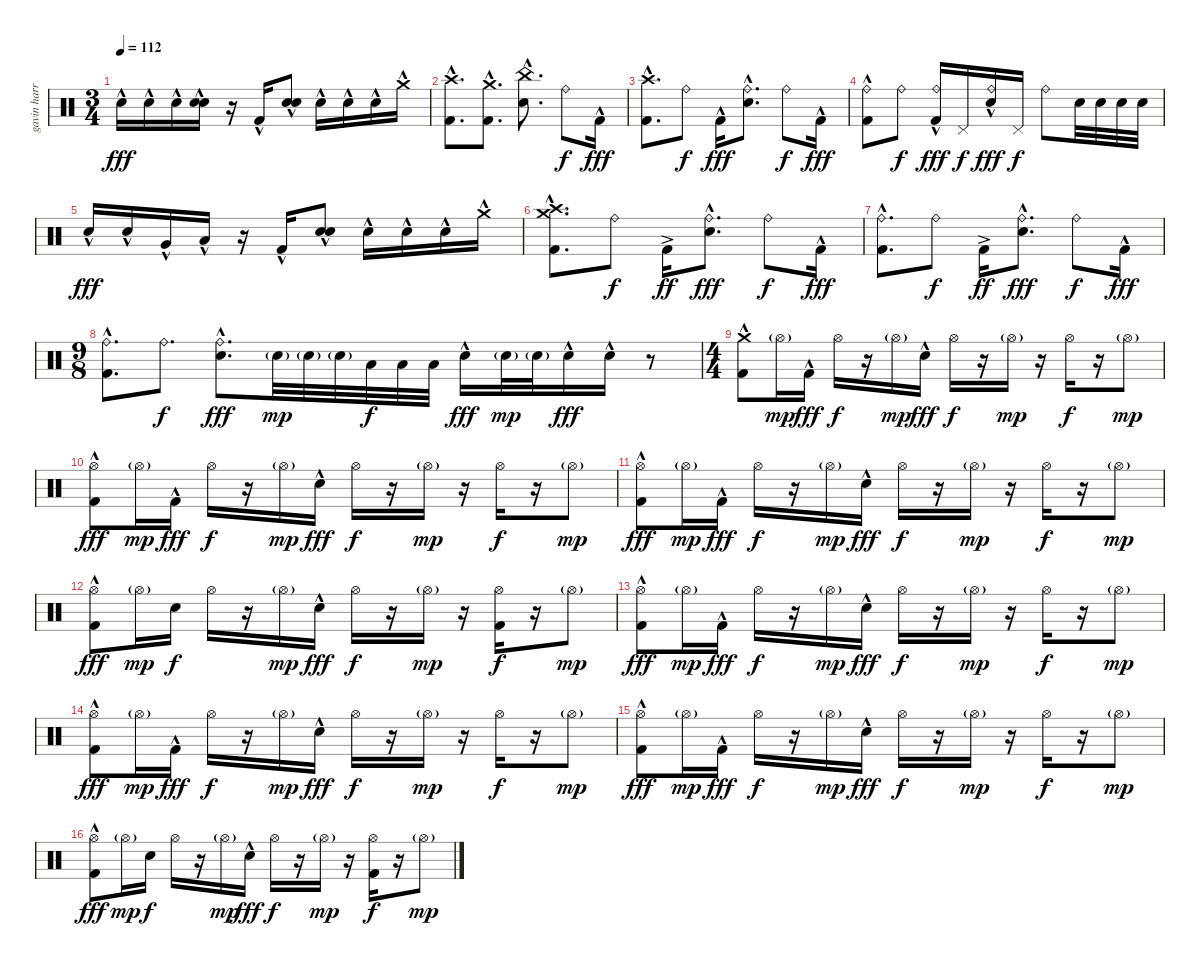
\track ("gavin harrison" "gavin harr") {instrument percussion}
\staff {score}
\articulation defaults
\ts (3 4)
\tempo 112
\clef neutral
\ks c "Electric Snare (hit)"{hac}.16{dy fff} "Electric Snare (hit)"{hac}.16 "Electric Snare (hit)"{hac}.16
("Electric Snare (hit)" "Electric Snare (hit)"{hac}).16 r.16 "Kick (hit) 2"{hac}.16 ("Electric Snare (hit)"{hac} "Electric Snare (hit)"{hac}).8 "Electric Snare (hit)"{hac}.16 "Electric Snare (hit)"{hac}.16 "Electric Snare (hit)"{hac}.16 "Crash medium (hit)"{hac}.16 |
("Crash high (hit)" "Kick (hit) 2"{hac}).8{d} ("Crash medium (hit)" "Kick (hit) 2"{hac}).8{d} ("China (hit)" "Electric Snare (hit)"{hac}).8{d} "Ride (bell)".8{dy f} "Kick (hit) 2"{hac}.16{dy fff} |
("Crash high (hit)" "Kick (hit) 2"{hac}).8{d} "Ride (bell)".8{dy f} "Kick (hit) 2"{hac}.16{dy fff} ("Ride (bell)" "Electric Snare (hit)"{hac}).8{d} "Ride (bell)".8{dy f} "Kick (hit) 2"{hac}.16{dy fff} |
("Ride (bell)" "Kick (hit) 2"{hac}).8 "Ride (bell)".8{dy f} ("Ride (bell)" "Kick (hit) 2"{hac}).16{dy fff} "Pedal Hi-Hat (hit)".16{dy f} ("Ride (bell)" "Electric Snare (hit)"{hac}).16{dy fff} "Pedal Hi-Hat (hit)".16{dy f} "Ride (bell)".8 "Electric Snare (hit)".32 "Electric Snare (hit)".32 "Electric Snare (hit)".32 "Electric Snare (hit)".32 |
"Electric Snare (hit)"{hac}.16{dy fff} "Electric Snare (hit)"{hac}.16 "Very Low Tom (hit)"{hac}.16 "Low Floor Tom (hit)"{hac}.16 r.16 "Kick (hit) 2"{hac}.16 ("Electric Snare (hit)"{hac} "Electric Snare (hit)"{hac}).8 "Electric Snare (hit)"{hac}.16 "Electric Snare (hit)"{hac}.16 "Electric Snare (hit)"{hac}.16 "Crash medium (hit)"{hac}.16 |
("Crash high (hit)" "Crash medium (hit)" "Kick (hit) 2"{hac}).8{d} "Ride (bell)".8{dy f} "Kick (hit) 2"{ac}.16{dy ff} ("Ride (bell)" "Electric Snare (hit)"{hac}).8{d dy fff} "Ride (bell)".8{dy f} "Kick (hit) 2"{hac}.16{dy fff} |
("Ride (bell)" "Kick (hit) 2"{hac}).8{d} "Ride (bell)".8{dy f} "Kick (hit) 2"{ac}.16{dy ff} ("Ride (bell)" "Electric Snare (hit)"{hac}).8{d dy fff} "Ride (bell)".8{dy f} "Kick (hit) 2"{hac}.16{dy fff} |
\ts (9 8)
("Ride (bell)" "Kick (hit) 2"{hac}).8{d} "Ride (bell)".8{d dy f} ("Ride (bell)" "Electric Snare (hit)"{hac}).8{d dy fff} "Electric Snare (hit)"{g}.32{dy mp} "Electric Snare (hit)"{g}.32 "Electric Snare (hit)"{g}.32 "Low Floor Tom (hit)".32{dy f} "Low Floor Tom (hit)".32 "Low Floor Tom (hit)".32 "Electric Snare (hit)"{hac}.16{dy fff} "Electric Snare (hit)"{g}.32{dy mp} "Electric Snare (hit)"{g}.32 "Electric Snare (hit)"{hac}.16{dy fff} "Electric Snare (hit)"{hac}.16 r.8 |
\ts (4 4)
("Crash medium (hit)" "Kick (hit) 2"{hac}).8 "Hi-Hat (open)"{g}.16{dy mp} "Kick (hit) 2"{hac}.16{dy fff} "Hi-Hat (open)".16{dy f} r.16 "Hi-Hat (open)"{g}.16{dy mp} "Electric Snare (hit)"{hac}.16{dy fff} "Hi-Hat (open)".16{dy f} r.16 "Hi-Hat (open)"{g}.16{dy mp} r.16 "Hi-Hat (open)".16{dy f} r.16 "Hi-Hat (open)"{g}.8{dy mp} |
("Hi-Hat (open)" "Kick (hit) 2"{hac}).8{dy fff} "Hi-Hat (open)"{g}.16{dy mp} "Kick (hit) 2"{hac}.16{dy fff} "Hi-Hat (open)".16{dy f} r.16 "Hi-Hat (open)"{g}.16{dy mp} "Electric Snare (hit)"{hac}.16{dy fff} "Hi-Hat (open)".16{dy f} r.16 "Hi-Hat (open)"{g}.16{dy mp} r.16 "Hi-Hat (open)".16{dy f} r.16 "Hi-Hat (open)"{g}.8{dy mp} |
("Hi-Hat (open)" "Kick (hit) 2"{hac}).8{dy fff} "Hi-Hat (open)"{g}.16{dy mp} "Kick (hit) 2"{hac}.16{dy fff} "Hi-Hat (open)".16{dy f} r.16 "Hi-Hat (open)"{g}.16{dy mp} "Electric Snare (hit)"{hac}.16{dy fff} "Hi-Hat (open)".16{dy f} r.16 "Hi-Hat (open)"{g}.16{dy mp} r.16 "Hi-Hat (open)".16{dy f} r.16 "Hi-Hat (open)"{g}.8{dy mp} |
("Hi-Hat (open)" "Kick (hit) 2"{hac}).8{dy fff} "Hi-Hat (open)"{g}.16{dy mp} "Electric Snare (hit)".16{dy f} "Hi-Hat (open)".16 r.16 "Hi-Hat (open)"{g}.16{dy mp} "Electric Snare (hit)"{hac}.16{dy fff} "Hi-Hat (open)".16{dy f} r.16 "Hi-Hat (open)"{g}.16{dy mp} r.16 ("Hi-Hat (open)" "Kick (hit) 2").16{dy f} r.16 "Hi-Hat (open)"{g}.8{dy mp} |
("Hi-Hat (open)" "Kick (hit) 2"{hac}).8{dy fff} "Hi-Hat (open)"{g}.16{dy mp} "Kick (hit) 2"{hac}.16{dy fff} "Hi-Hat (open)".16{dy f} r.16 "Hi-Hat (open)"{g}.16{dy mp} "Electric Snare (hit)"{hac}.16{dy fff} "Hi-Hat (open)".16{dy f} r.16 "Hi-Hat (open)"{g}.16{dy mp} r.16 "Hi-Hat (open)".16{dy f} r.16 "Hi-Hat (open)"{g}.8{dy mp} |
("Hi-Hat (open)" "Kick (hit) 2"{hac}).8{dy fff} "Hi-Hat (open)"{g}.16{dy mp} "Kick (hit) 2"{hac}.16{dy fff} "Hi-Hat (open)".16{dy f} r.16 "Hi-Hat (open)"{g}.16{dy mp} "Electric Snare (hit)"{hac}.16{dy fff} "Hi-Hat (open)".16{dy f} r.16 "Hi-Hat (open)"{g}.16{dy mp} r.16 "Hi-Hat (open)".16{dy f} r.16 "Hi-Hat (open)"{g}.8{dy mp} |
("Hi-Hat (open)" "Kick (hit) 2"{hac}).8{dy fff} "Hi-Hat (open)"{g}.16{dy mp} "Kick (hit) 2"{hac}.16{dy fff} "Hi-Hat (open)".16{dy f} r.16 "Hi-Hat (open)"{g}.16{dy mp} "Electric Snare (hit)"{hac}.16{dy fff} "Hi-Hat (open)".16{dy f} r.16 "Hi-Hat (open)"{g}.16{dy mp} r.16 "Hi-Hat (open)".16{dy f} r.16 "Hi-Hat (open)"{g}.8{dy mp} |
("Hi-Hat (open)" "Kick (hit) 2"{hac}).8{dy fff} "Hi-Hat (open)"{g}.16{dy mp} "Electric Snare (hit)".16{dy f} "Hi-Hat (open)".16 r.16 "Hi-Hat (open)"{g}.16{dy mp} "Electric Snare (hit)"{hac}.16{dy fff} "Hi-Hat (open)".16{dy f} r.16 "Hi-Hat (open)"{g}.16{dy mp} r.16 ("Hi-Hat (open)" "Kick (hit) 2").16{dy f} r.16 "Hi-Hat (open)"{g}.8{dy mp}
